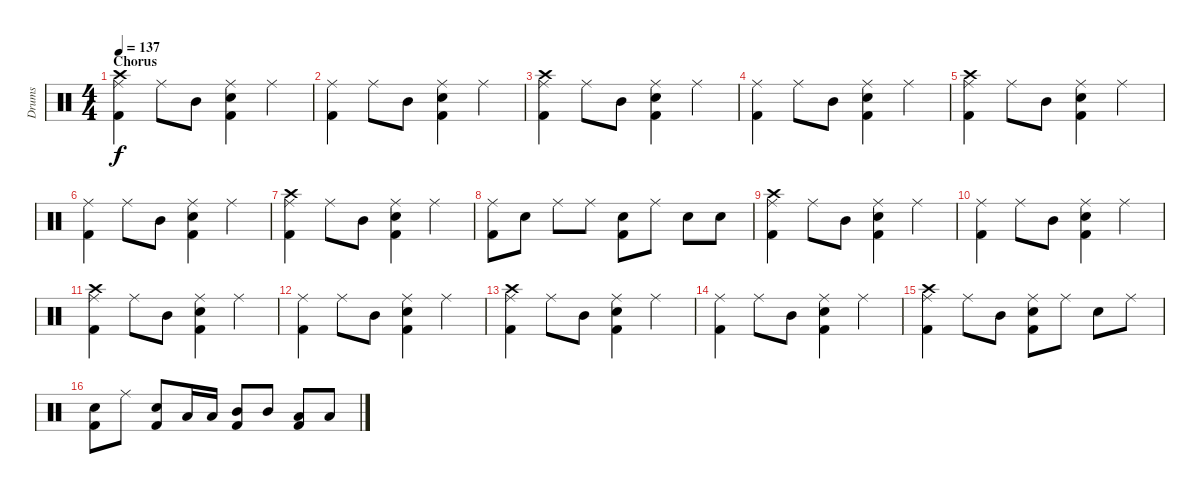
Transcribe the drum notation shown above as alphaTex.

\track ("Drums" "Drums") {instrument percussion}
\staff {score}
\articulation defaults
\ts (4 4)
\section ("" "Chorus")
\tempo 137
\clef neutral
\ks c
("Crash high (hit)" "Ride (middle)" "Kick (hit) 2").4{dy f} "Ride (middle)".8 "Mid Tom (hit)".8 ("Ride (middle)" "Electric Snare (hit)" "Kick (hit) 2").4 "Ride (middle)".4 |
("Ride (middle)" "Kick (hit) 2").4 "Ride (middle)".8 "Mid Tom (hit)".8 ("Ride (middle)" "Electric Snare (hit)" "Kick (hit) 2").4 "Ride (middle)".4 |
("Crash high (hit)" "Ride (middle)" "Kick (hit) 2").4 "Ride (middle)".8 "Mid Tom (hit)".8 ("Ride (middle)" "Electric Snare (hit)" "Kick (hit) 2").4 "Ride (middle)".4 |
("Ride (middle)" "Kick (hit) 2").4 "Ride (middle)".8 "Mid Tom (hit)".8 ("Ride (middle)" "Electric Snare (hit)" "Kick (hit) 2").4 "Ride (middle)".4 |
("Crash high (hit)" "Ride (middle)" "Kick (hit) 2").4 "Ride (middle)".8 "Mid Tom (hit)".8 ("Ride (middle)" "Electric Snare (hit)" "Kick (hit) 2").4 "Ride (middle)".4 |
("Ride (middle)" "Kick (hit) 2").4 "Ride (middle)".8 "Mid Tom (hit)".8 ("Ride (middle)" "Electric Snare (hit)" "Kick (hit) 2").4 "Ride (middle)".4 |
("Crash high (hit)" "Ride (middle)" "Kick (hit) 2").4 "Ride (middle)".8 "Mid Tom (hit)".8 ("Ride (middle)" "Electric Snare (hit)" "Kick (hit) 2").4 "Ride (middle)".4 |
("Ride (middle)" "Kick (hit) 2").8 "Electric Snare (hit)".8 "Ride (middle)".8 "Ride (middle)".8 ("Electric Snare (hit)" "Kick (hit) 2").8 "Ride (middle)".8 "Electric Snare (hit)".8 "Electric Snare (hit)".8 |
("Crash high (hit)" "Ride (middle)" "Kick (hit) 2").4 "Ride (middle)".8 "Mid Tom (hit)".8 ("Ride (middle)" "Electric Snare (hit)" "Kick (hit) 2").4 "Ride (middle)".4 |
("Ride (middle)" "Kick (hit) 2").4 "Ride (middle)".8 "Mid Tom (hit)".8 ("Ride (middle)" "Electric Snare (hit)" "Kick (hit) 2").4 "Ride (middle)".4 |
("Crash high (hit)" "Ride (middle)" "Kick (hit) 2").4 "Ride (middle)".8 "Mid Tom (hit)".8 ("Ride (middle)" "Electric Snare (hit)" "Kick (hit) 2").4 "Ride (middle)".4 |
("Ride (middle)" "Kick (hit) 2").4 "Ride (middle)".8 "Mid Tom (hit)".8 ("Ride (middle)" "Electric Snare (hit)" "Kick (hit) 2").4 "Ride (middle)".4 |
("Crash high (hit)" "Ride (middle)" "Kick (hit) 2").4 "Ride (middle)".8 "Mid Tom (hit)".8 ("Ride (middle)" "Electric Snare (hit)" "Kick (hit) 2").4 "Ride (middle)".4 |
("Ride (middle)" "Kick (hit) 2").4 "Ride (middle)".8 "Mid Tom (hit)".8 ("Ride (middle)" "Electric Snare (hit)" "Kick (hit) 2").4 "Ride (middle)".4 |
("Crash high (hit)" "Ride (middle)" "Kick (hit) 2").4 "Ride (middle)".8 "Mid Tom (hit)".8 ("Ride (middle)" "Electric Snare (hit)" "Kick (hit) 2").8 "Ride (middle)".8 "Electric Snare (hit)".8 "Ride (middle)".8 |
("Electric Snare (hit)" "Kick (hit) 2").8 "Ride (middle)".8 ("Electric Snare (hit)" "Kick (hit) 2").8 "Low Tom (hit)".16 "Low Tom (hit)".16 ("Mid Tom (hit)" "Kick (hit) 2").8 "Mid Tom (hit)".8 ("Low Tom (hit)" "Kick (hit) 2").8 "Low Tom (hit)".8
